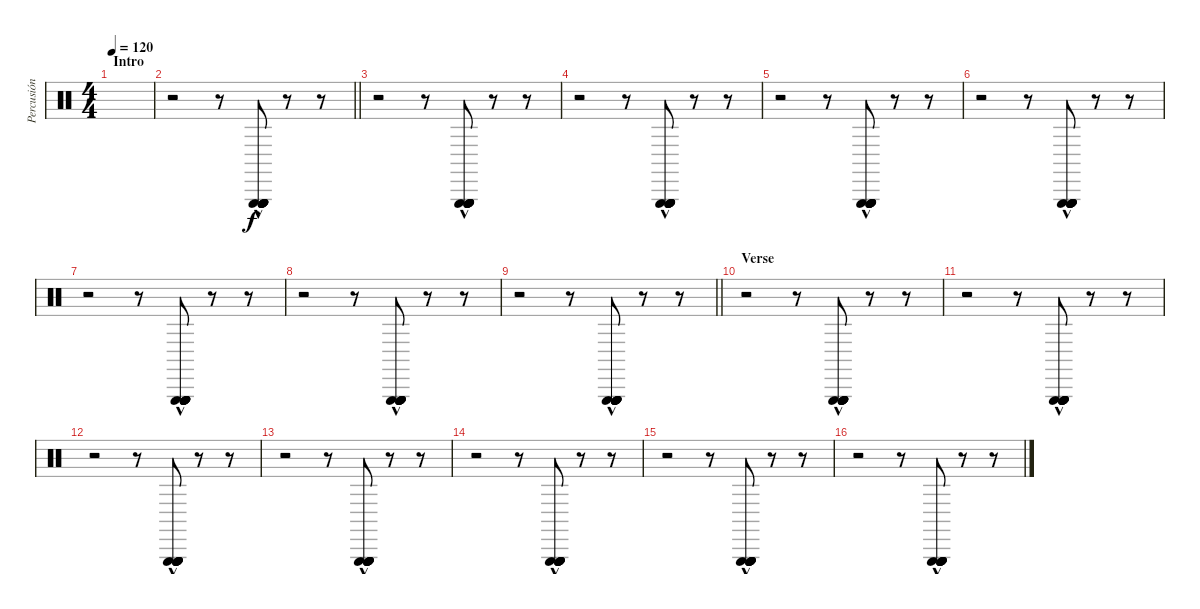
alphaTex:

\track ("Percusión" "Percusión") {instrument percussion}
\staff {score}
\articulation defaults
\ts (4 4)
\section ("" "Intro")
\tempo 120
\clef neutral
\ks c
|
\barLineRight lightlight
r.2 r.8 ("Triangle (hit)" "Triangle (hit)" "Triangle (hit)" "Triangle (hit)" "Triangle (hit)" "Triangle (hit)"{hac}).8 r.8 r.8 |
r.2 r.8 ("Triangle (hit)" "Triangle (hit)" "Triangle (hit)" "Triangle (hit)" "Triangle (hit)" "Triangle (hit)"{hac}).8 r.8 r.8 |
r.2 r.8 ("Triangle (hit)" "Triangle (hit)" "Triangle (hit)" "Triangle (hit)" "Triangle (hit)" "Triangle (hit)"{hac}).8 r.8 r.8 |
r.2 r.8 ("Triangle (hit)" "Triangle (hit)" "Triangle (hit)" "Triangle (hit)" "Triangle (hit)" "Triangle (hit)"{hac}).8 r.8 r.8 |
r.2 r.8 ("Triangle (hit)" "Triangle (hit)" "Triangle (hit)" "Triangle (hit)" "Triangle (hit)" "Triangle (hit)"{hac}).8 r.8 r.8 |
r.2 r.8 ("Triangle (hit)" "Triangle (hit)" "Triangle (hit)" "Triangle (hit)" "Triangle (hit)" "Triangle (hit)"{hac}).8 r.8 r.8 |
r.2 r.8 ("Triangle (hit)" "Triangle (hit)" "Triangle (hit)" "Triangle (hit)" "Triangle (hit)" "Triangle (hit)"{hac}).8 r.8 r.8 |
\barLineRight lightlight
r.2 r.8 ("Triangle (hit)" "Triangle (hit)" "Triangle (hit)" "Triangle (hit)" "Triangle (hit)" "Triangle (hit)"{hac}).8 r.8 r.8 |
\section ("" "Verse")
r.2 r.8 ("Triangle (hit)" "Triangle (hit)" "Triangle (hit)" "Triangle (hit)" "Triangle (hit)" "Triangle (hit)"{hac}).8 r.8 r.8 |
r.2 r.8 ("Triangle (hit)" "Triangle (hit)" "Triangle (hit)" "Triangle (hit)" "Triangle (hit)" "Triangle (hit)"{hac}).8 r.8 r.8 |
r.2 r.8 ("Triangle (hit)" "Triangle (hit)" "Triangle (hit)" "Triangle (hit)" "Triangle (hit)" "Triangle (hit)"{hac}).8 r.8 r.8 |
r.2 r.8 ("Triangle (hit)" "Triangle (hit)" "Triangle (hit)" "Triangle (hit)" "Triangle (hit)" "Triangle (hit)"{hac}).8 r.8 r.8 |
r.2 r.8 ("Triangle (hit)" "Triangle (hit)" "Triangle (hit)" "Triangle (hit)" "Triangle (hit)" "Triangle (hit)"{hac}).8 r.8 r.8 |
r.2 r.8 ("Triangle (hit)" "Triangle (hit)" "Triangle (hit)" "Triangle (hit)" "Triangle (hit)" "Triangle (hit)"{hac}).8 r.8 r.8 |
r.2 r.8 ("Triangle (hit)" "Triangle (hit)" "Triangle (hit)" "Triangle (hit)" "Triangle (hit)" "Triangle (hit)"{hac}).8 r.8 r.8
